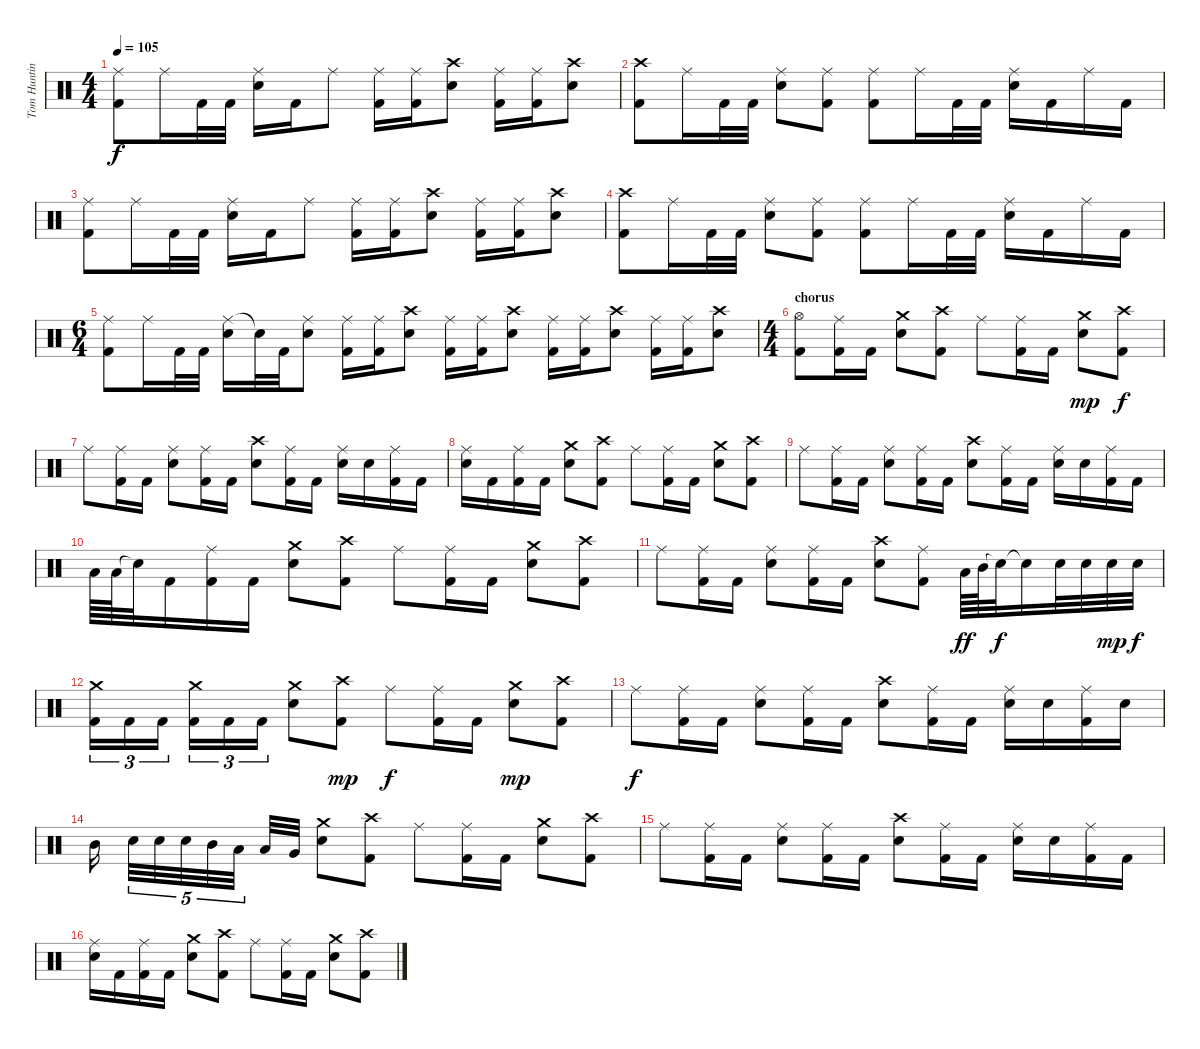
\track ("Tom Hunting" "Tom Huntin") {instrument percussion}
\staff {score}
\articulation defaults
\ts (4 4)
\tempo 105
\clef neutral
\ks c
("Kick (hit) 2" "Ride (middle)").8{dy f} "Ride (middle)".16 "Kick (hit) 2".32 "Kick (hit) 2".32 ("Ride (middle)" "Snare (hit) 2").16 "Kick (hit) 2".16 "Ride (middle)".8 ("Kick (hit) 2" "Ride (middle)").16 ("Kick (hit) 2" "Ride (middle)").16 ("Crash high (hit)" "Snare (hit) 2").8 ("Kick (hit) 2" "Ride (middle)").16 ("Kick (hit) 2" "Ride (middle)").16 ("Crash high (hit)" "Snare (hit) 2").8 |
("Kick (hit) 2" "Crash high (hit)").8 "Ride (middle)".16 "Kick (hit) 2".32 "Kick (hit) 2".32 ("Ride (middle)" "Snare (hit) 2").8 ("Kick (hit) 2" "Ride (middle)").8 ("Kick (hit) 2" "Ride (middle)").8 "Ride (middle)".16 "Kick (hit) 2".32 "Kick (hit) 2".32 ("Ride (middle)" "Snare (hit) 2").16 "Kick (hit) 2".16 "Ride (middle)".16 "Kick (hit) 2".16 |
("Kick (hit) 2" "Ride (middle)").8 "Ride (middle)".16 "Kick (hit) 2".32 "Kick (hit) 2".32 ("Ride (middle)" "Snare (hit) 2").16 "Kick (hit) 2".16 "Ride (middle)".8 ("Kick (hit) 2" "Ride (middle)").16 ("Kick (hit) 2" "Ride (middle)").16 ("Crash high (hit)" "Snare (hit) 2").8 ("Kick (hit) 2" "Ride (middle)").16 ("Kick (hit) 2" "Ride (middle)").16 ("Crash high (hit)" "Snare (hit) 2").8 |
("Kick (hit) 2" "Crash high (hit)").8 "Ride (middle)".16 "Kick (hit) 2".32 "Kick (hit) 2".32 ("Ride (middle)" "Snare (hit) 2").8 ("Kick (hit) 2" "Ride (middle)").8 ("Kick (hit) 2" "Ride (middle)").8 "Ride (middle)".16 "Kick (hit) 2".32 "Kick (hit) 2".32 ("Ride (middle)" "Snare (hit) 2").16 "Kick (hit) 2".16 "Ride (middle)".16 "Kick (hit) 2".16 |
\ts (6 4)
("Kick (hit) 2" "Ride (middle)").8 "Ride (middle)".16 "Kick (hit) 2".32 "Kick (hit) 2".32 ("Ride (middle)" "Snare (hit) 2").16 "Snare (hit)"{t}.32 "Kick (hit) 2".32 ("Ride (middle)" "Snare (hit) 2").8 ("Kick (hit) 2" "Ride (middle)").16 ("Kick (hit) 2" "Ride (middle)").16 ("Crash high (hit)" "Snare (hit) 2").8 ("Kick (hit) 2" "Ride (middle)").16 ("Kick (hit) 2" "Ride (middle)").16 ("Crash high (hit)" "Snare (hit) 2").8 ("Kick (hit) 2" "Ride (middle)").16 ("Kick (hit) 2" "Ride (middle)").16 ("Crash high (hit)" "Snare (hit) 2").8 ("Kick (hit) 2" "Ride (middle)").16 ("Kick (hit) 2" "Ride (middle)").16 ("Crash high (hit)" "Snare (hit) 2").8 |
\ts (4 4)
\section ("" "chorus")
("Kick (hit) 2" "Hi-Hat (open)").8 ("Kick (hit) 2" "Ride (middle)").16 "Kick (hit) 2".16 ("Crash medium (hit)" "Snare (hit) 2").8 ("Kick (hit) 2" "Crash high (hit)").8 "Ride (middle)".8 ("Kick (hit) 2" "Ride (middle)").16 "Kick (hit) 2".16 ("Crash medium (hit)" "Snare (hit) 2").8{dy mp} ("Kick (hit) 2" "Crash high (hit)").8{dy f} |
"Ride (middle)".8 ("Kick (hit) 2" "Ride (middle)").16 "Kick (hit) 2".16 ("Ride (middle)" "Snare (hit) 2").8 ("Kick (hit) 2" "Ride (middle)").16 "Kick (hit) 2".16 ("Crash high (hit)" "Snare (hit) 2").8 ("Kick (hit) 2" "Ride (middle)").16 "Kick (hit) 2".16 ("Ride (middle)" "Snare (hit) 2").16 "Snare (hit) 2".16 ("Kick (hit) 2" "Ride (middle)").16 "Kick (hit) 2".16 |
("Ride (middle)" "Snare (hit) 2").16 "Kick (hit) 2".16 ("Kick (hit) 2" "Ride (middle)").16 "Kick (hit) 2".16 ("Crash medium (hit)" "Snare (hit) 2").8 ("Kick (hit) 2" "Crash high (hit)").8 "Ride (middle)".8 ("Kick (hit) 2" "Ride (middle)").16 "Kick (hit) 2".16 ("Crash medium (hit)" "Snare (hit) 2").8 ("Kick (hit) 2" "Crash high (hit)").8 |
"Ride (middle)".8 ("Kick (hit) 2" "Ride (middle)").16 "Kick (hit) 2".16 ("Ride (middle)" "Snare (hit) 2").8 ("Kick (hit) 2" "Ride (middle)").16 "Kick (hit) 2".16 ("Crash high (hit)" "Snare (hit) 2").8 ("Kick (hit) 2" "Ride (middle)").16 "Kick (hit) 2".16 ("Ride (middle)" "Snare (hit) 2").16 "Snare (hit) 2".16 ("Kick (hit) 2" "Ride (middle)").16 "Kick (hit) 2".16 |
"Low Tom (hit)".64 "Low Tom (hit)".64 "Snare (hit)"{t}.32 "Kick (hit) 2".16 ("Kick (hit) 2" "Ride (middle)").16 "Kick (hit) 2".16 ("Crash medium (hit)" "Snare (hit) 2").8 ("Kick (hit) 2" "Crash high (hit)").8 "Ride (middle)".8 ("Kick (hit) 2" "Ride (middle)").16 "Kick (hit) 2".16 ("Crash medium (hit)" "Snare (hit) 2").8 ("Kick (hit) 2" "Crash high (hit)").8 |
"Ride (middle)".8 ("Kick (hit) 2" "Ride (middle)").16 "Kick (hit) 2".16 ("Ride (middle)" "Snare (hit) 2").8 ("Kick (hit) 2" "Ride (middle)").16 "Kick (hit) 2".16 ("Snare (hit) 2" "Crash high (hit)").8 ("Kick (hit) 2" "Ride (middle)").8 "Low Tom (hit)".64{dy ff} "Mid Tom (hit)".64 "Snare (hit)"{t}.32{dy f} "Snare (hit)"{t}.16 "Snare (hit) 2".32 "Snare (hit) 2".32 "Snare (hit) 2".32{dy mp} "Snare (hit) 2".32{dy f} |
("Kick (hit) 2" "Crash medium (hit)").16{tu (3 2)} "Kick (hit) 2".16{tu (3 2)} "Kick (hit) 2".16{tu (3 2)} ("Kick (hit) 2" "Crash medium (hit)").16{tu (3 2)} "Kick (hit) 2".16{tu (3 2)} "Kick (hit) 2".16{tu (3 2)} ("Crash medium (hit)" "Snare (hit) 2").8 ("Kick (hit) 2" "Crash high (hit)").8{dy mp} "Ride (middle)".8{dy f} ("Kick (hit) 2" "Ride (middle)").16 "Kick (hit) 2".16 ("Crash medium (hit)" "Snare (hit) 2").8{dy mp} ("Kick (hit) 2" "Crash high (hit)").8 |
"Ride (middle)".8{dy f} ("Kick (hit) 2" "Ride (middle)").16 "Kick (hit) 2".16 ("Ride (middle)" "Snare (hit) 2").8 ("Kick (hit) 2" "Ride (middle)").16 "Kick (hit) 2".16 ("Crash high (hit)" "Snare (hit) 2").8 ("Kick (hit) 2" "Ride (middle)").16 "Kick (hit) 2".16 ("Ride (middle)" "Snare (hit) 2").16 "Snare (hit) 2".16 ("Kick (hit) 2" "Ride (middle)").16 "Snare (hit) 2".16 |
"Mid Tom (hit)".16 "Snare (hit) 2".32{tu (5 4)} "Snare (hit) 2".32{tu (5 4)} "Snare (hit) 2".32{tu (5 4)} "Mid Tom (hit)".32{tu (5 4)} "Low Tom (hit)".32{tu (5 4)} "Low Tom (hit)".32 "Very Low Tom (hit)".32 ("Crash medium (hit)" "Snare (hit) 2").8 ("Kick (hit) 2" "Crash high (hit)").8 "Ride (middle)".8 ("Kick (hit) 2" "Ride (middle)").16 "Kick (hit) 2".16 ("Crash medium (hit)" "Snare (hit) 2").8 ("Kick (hit) 2" "Crash high (hit)").8 |
"Ride (middle)".8 ("Kick (hit) 2" "Ride (middle)").16 "Kick (hit) 2".16 ("Ride (middle)" "Snare (hit) 2").8 ("Kick (hit) 2" "Ride (middle)").16 "Kick (hit) 2".16 ("Crash high (hit)" "Snare (hit) 2").8 ("Kick (hit) 2" "Ride (middle)").16 "Kick (hit) 2".16 ("Ride (middle)" "Snare (hit) 2").16 "Snare (hit) 2".16 ("Kick (hit) 2" "Ride (middle)").16 "Kick (hit) 2".16 |
("Ride (middle)" "Snare (hit) 2").16 "Kick (hit) 2".16 ("Kick (hit) 2" "Ride (middle)").16 "Kick (hit) 2".16 ("Crash medium (hit)" "Snare (hit) 2").8 ("Kick (hit) 2" "Crash high (hit)").8 "Ride (middle)".8 ("Kick (hit) 2" "Ride (middle)").16 "Kick (hit) 2".16 ("Crash medium (hit)" "Snare (hit) 2").8 ("Kick (hit) 2" "Crash high (hit)").8
